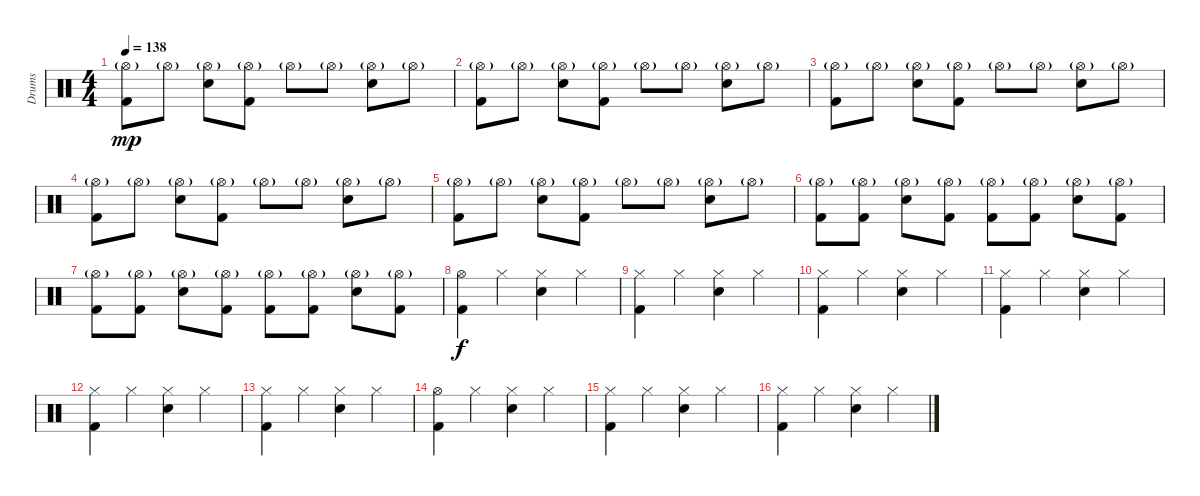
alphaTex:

\track ("Drums" "Drums") {instrument percussion}
\staff {score}
\articulation defaults
\ts (4 4)
\tempo 138
\clef neutral
\ks c
("Hi-Hat (open)"{g} "Kick (hit) 2").8{dy mp} "Hi-Hat (open)"{g}.8 ("Hi-Hat (open)"{g} "Snare (hit) 2").8 ("Hi-Hat (open)"{g} "Kick (hit) 2").8 "Hi-Hat (open)"{g}.8 "Hi-Hat (open)"{g}.8 ("Hi-Hat (open)"{g} "Snare (hit) 2").8 "Hi-Hat (open)"{g}.8 |
("Hi-Hat (open)"{g} "Kick (hit) 2").8 "Hi-Hat (open)"{g}.8 ("Hi-Hat (open)"{g} "Snare (hit) 2").8 ("Hi-Hat (open)"{g} "Kick (hit) 2").8 "Hi-Hat (open)"{g}.8 "Hi-Hat (open)"{g}.8 ("Hi-Hat (open)"{g} "Snare (hit) 2").8 "Hi-Hat (open)"{g}.8 |
("Hi-Hat (open)"{g} "Kick (hit) 2").8 "Hi-Hat (open)"{g}.8 ("Hi-Hat (open)"{g} "Snare (hit) 2").8 ("Hi-Hat (open)"{g} "Kick (hit) 2").8 "Hi-Hat (open)"{g}.8 "Hi-Hat (open)"{g}.8 ("Hi-Hat (open)"{g} "Snare (hit) 2").8 "Hi-Hat (open)"{g}.8 |
("Hi-Hat (open)"{g} "Kick (hit) 2").8 "Hi-Hat (open)"{g}.8 ("Hi-Hat (open)"{g} "Snare (hit) 2").8 ("Hi-Hat (open)"{g} "Kick (hit) 2").8 "Hi-Hat (open)"{g}.8 "Hi-Hat (open)"{g}.8 ("Hi-Hat (open)"{g} "Snare (hit) 2").8 "Hi-Hat (open)"{g}.8 |
("Hi-Hat (open)"{g} "Kick (hit) 2").8 "Hi-Hat (open)"{g}.8 ("Hi-Hat (open)"{g} "Snare (hit) 2").8 ("Hi-Hat (open)"{g} "Kick (hit) 2").8 "Hi-Hat (open)"{g}.8 "Hi-Hat (open)"{g}.8 ("Hi-Hat (open)"{g} "Snare (hit) 2").8 "Hi-Hat (open)"{g}.8 |
("Hi-Hat (open)"{g} "Kick (hit) 2").8 ("Hi-Hat (open)"{g} "Kick (hit) 2").8 ("Hi-Hat (open)"{g} "Snare (hit) 2").8 ("Hi-Hat (open)"{g} "Kick (hit) 2").8 ("Hi-Hat (open)"{g} "Kick (hit) 2").8 ("Hi-Hat (open)"{g} "Kick (hit) 2").8 ("Hi-Hat (open)"{g} "Snare (hit) 2").8 ("Hi-Hat (open)"{g} "Kick (hit) 2").8 |
("Hi-Hat (open)"{g} "Kick (hit) 2").8 ("Hi-Hat (open)"{g} "Kick (hit) 2").8 ("Hi-Hat (open)"{g} "Snare (hit) 2").8 ("Hi-Hat (open)"{g} "Kick (hit) 2").8 ("Hi-Hat (open)"{g} "Kick (hit) 2").8 ("Hi-Hat (open)"{g} "Kick (hit) 2").8 ("Hi-Hat (open)"{g} "Snare (hit) 2").8 ("Hi-Hat (open)"{g} "Kick (hit) 2").8 |
("Hi-Hat (open)" "Kick (hit) 2").4{dy f} "Hi-Hat (closed)".4 ("Hi-Hat (closed)" "Snare (hit) 2").4 "Hi-Hat (closed)".4 |
("Hi-Hat (closed)" "Kick (hit) 2").4 "Hi-Hat (closed)".4 ("Hi-Hat (closed)" "Snare (hit) 2").4 "Hi-Hat (closed)".4 |
("Hi-Hat (closed)" "Kick (hit) 2").4 "Hi-Hat (closed)".4 ("Hi-Hat (closed)" "Snare (hit) 2").4 "Hi-Hat (closed)".4 |
("Hi-Hat (closed)" "Kick (hit) 2").4 "Hi-Hat (closed)".4 ("Hi-Hat (closed)" "Snare (hit) 2").4 "Hi-Hat (closed)".4 |
("Hi-Hat (closed)" "Kick (hit) 2").4 "Hi-Hat (closed)".4 ("Hi-Hat (closed)" "Snare (hit) 2").4 "Hi-Hat (closed)".4 |
("Hi-Hat (closed)" "Kick (hit) 2").4 "Hi-Hat (closed)".4 ("Hi-Hat (closed)" "Snare (hit) 2").4 "Hi-Hat (closed)".4 |
("Hi-Hat (open)" "Kick (hit) 2").4 "Hi-Hat (closed)".4 ("Hi-Hat (closed)" "Snare (hit) 2").4 "Hi-Hat (closed)".4 |
("Hi-Hat (closed)" "Kick (hit) 2").4 "Hi-Hat (closed)".4 ("Hi-Hat (closed)" "Snare (hit) 2").4 "Hi-Hat (closed)".4 |
("Hi-Hat (closed)" "Kick (hit) 2").4 "Hi-Hat (closed)".4 ("Hi-Hat (closed)" "Snare (hit) 2").4 "Hi-Hat (closed)".4
